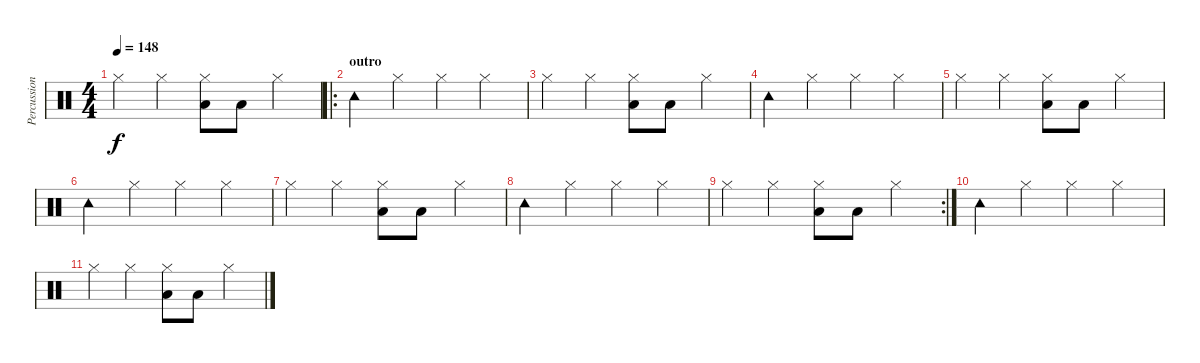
\track ("Percussions" "Percussion") {instrument percussion}
\staff {score}
\articulation defaults
\ts (4 4)
\tempo 148
\clef neutral
\ks c "Hi-Hat (closed)".4{dy f} "Hi-Hat (closed)".4
("Hi-Hat (closed)" "Low Tom (hit)").8 "Low Tom (hit)".8 "Hi-Hat (closed)".4 |
\ro
\section ("" "outro")
"Tambourine (hit)".4 "Hi-Hat (closed)".4 "Hi-Hat (closed)".4 "Hi-Hat (closed)".4 |
"Hi-Hat (closed)".4 "Hi-Hat (closed)".4 ("Hi-Hat (closed)" "Low Tom (hit)").8 "Low Tom (hit)".8 "Hi-Hat (closed)".4 |
"Tambourine (hit)".4 "Hi-Hat (closed)".4 "Hi-Hat (closed)".4 "Hi-Hat (closed)".4 |
"Hi-Hat (closed)".4 "Hi-Hat (closed)".4 ("Hi-Hat (closed)" "Low Tom (hit)").8 "Low Tom (hit)".8 "Hi-Hat (closed)".4 |
"Tambourine (hit)".4 "Hi-Hat (closed)".4 "Hi-Hat (closed)".4 "Hi-Hat (closed)".4 |
"Hi-Hat (closed)".4 "Hi-Hat (closed)".4 ("Hi-Hat (closed)" "Low Tom (hit)").8 "Low Tom (hit)".8 "Hi-Hat (closed)".4 |
"Tambourine (hit)".4 "Hi-Hat (closed)".4 "Hi-Hat (closed)".4 "Hi-Hat (closed)".4 |
\rc 2 "Hi-Hat (closed)".4 "Hi-Hat (closed)".4
("Hi-Hat (closed)" "Low Tom (hit)").8 "Low Tom (hit)".8 "Hi-Hat (closed)".4 |
"Tambourine (hit)".4 "Hi-Hat (closed)".4 "Hi-Hat (closed)".4 "Hi-Hat (closed)".4 |
"Hi-Hat (closed)".4 "Hi-Hat (closed)".4 ("Hi-Hat (closed)" "Low Tom (hit)").8 "Low Tom (hit)".8 "Hi-Hat (closed)".4
